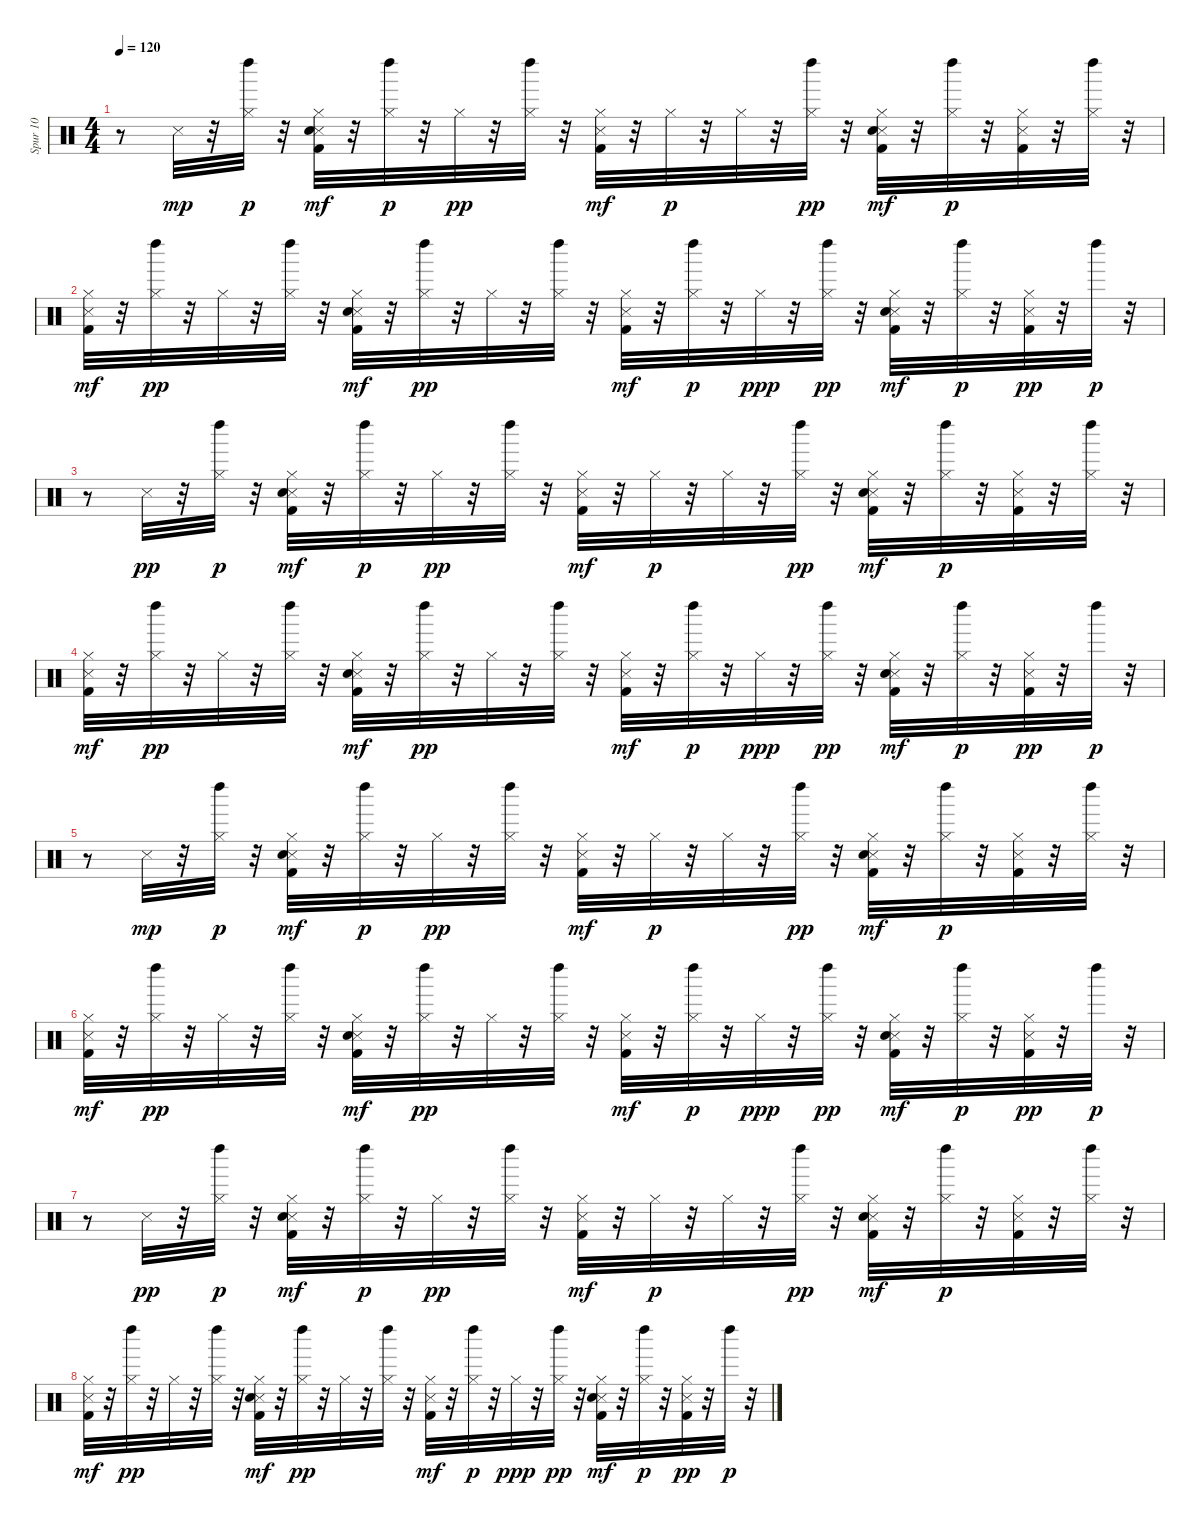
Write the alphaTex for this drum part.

\track ("Spur 10" "Spur 10") {instrument percussion}
\staff {score}
\articulation defaults
\ts (4 4)
\tempo 120
\clef neutral
\ks c
r.8{dy p} "Snare (side stick) 3".32{dy mp} r.32 ("Hi-Hat (closed)" "Left Maraca (hit)").32{dy p} r.32 ("Kick (hit) 2" "Snare (side stick) 3" "Hand Clap (hit)" "Hi-Hat (closed)").32{dy mf} r.32 ("Hi-Hat (closed)" "Left Maraca (hit)").32{dy p} r.32 "Hi-Hat (closed)".32{dy pp} r.32 ("Hi-Hat (closed)" "Left Maraca (hit)").32 r.32 ("Kick (hit) 2" "Snare (side stick) 3" "Hi-Hat (closed)").32{dy mf} r.32 "Hi-Hat (closed)".32{dy p} r.32 "Hi-Hat (closed)".32 r.32 ("Hi-Hat (closed)" "Left Maraca (hit)").32{dy pp} r.32 ("Kick (hit) 2" "Snare (side stick) 3" "Hand Clap (hit)" "Hi-Hat (closed)").32{dy mf} r.32 ("Hi-Hat (closed)" "Left Maraca (hit)").32{dy p} r.32 ("Kick (hit) 2" "Snare (side stick) 3" "Hi-Hat (closed)").32 r.32 ("Hi-Hat (closed)" "Left Maraca (hit)").32 r.32 |
("Kick (hit) 2" "Snare (side stick) 3" "Hi-Hat (closed)").32{dy mf} r.32 ("Hi-Hat (closed)" "Left Maraca (hit)").32{dy pp} r.32 "Hi-Hat (closed)".32 r.32 ("Hi-Hat (closed)" "Left Maraca (hit)").32 r.32 ("Kick (hit) 2" "Snare (side stick) 3" "Hand Clap (hit)" "Hi-Hat (closed)").32{dy mf} r.32 ("Hi-Hat (closed)" "Left Maraca (hit)").32{dy pp} r.32 "Hi-Hat (closed)".32 r.32 ("Hi-Hat (closed)" "Left Maraca (hit)").32 r.32 ("Kick (hit) 2" "Snare (side stick) 3" "Hi-Hat (closed)").32{dy mf} r.32 ("Hi-Hat (closed)" "Left Maraca (hit)").32{dy p} r.32 "Hi-Hat (closed)".32{dy ppp} r.32 ("Hi-Hat (closed)" "Left Maraca (hit)").32{dy pp} r.32 ("Kick (hit) 2" "Snare (side stick) 3" "Hand Clap (hit)" "Hi-Hat (closed)").32{dy mf} r.32 ("Hi-Hat (closed)" "Left Maraca (hit)").32{dy p} r.32 ("Kick (hit) 2" "Snare (side stick) 3" "Hi-Hat (closed)").32{dy pp} r.32 "Left Maraca (hit)".32{dy p} r.32 |
r.8 "Snare (side stick) 3".32{dy pp} r.32 ("Hi-Hat (closed)" "Left Maraca (hit)").32{dy p} r.32 ("Kick (hit) 2" "Snare (side stick) 3" "Hand Clap (hit)" "Hi-Hat (closed)").32{dy mf} r.32 ("Hi-Hat (closed)" "Left Maraca (hit)").32{dy p} r.32 "Hi-Hat (closed)".32{dy pp} r.32 ("Hi-Hat (closed)" "Left Maraca (hit)").32 r.32 ("Kick (hit) 2" "Snare (side stick) 3" "Hi-Hat (closed)").32{dy mf} r.32 "Hi-Hat (closed)".32{dy p} r.32 "Hi-Hat (closed)".32 r.32 ("Hi-Hat (closed)" "Left Maraca (hit)").32{dy pp} r.32 ("Kick (hit) 2" "Snare (side stick) 3" "Hand Clap (hit)" "Hi-Hat (closed)").32{dy mf} r.32 ("Hi-Hat (closed)" "Left Maraca (hit)").32{dy p} r.32 ("Kick (hit) 2" "Snare (side stick) 3" "Hi-Hat (closed)").32 r.32 ("Hi-Hat (closed)" "Left Maraca (hit)").32 r.32 |
("Kick (hit) 2" "Snare (side stick) 3" "Hi-Hat (closed)").32{dy mf} r.32 ("Hi-Hat (closed)" "Left Maraca (hit)").32{dy pp} r.32 "Hi-Hat (closed)".32 r.32 ("Hi-Hat (closed)" "Left Maraca (hit)").32 r.32 ("Kick (hit) 2" "Snare (side stick) 3" "Hand Clap (hit)" "Hi-Hat (closed)").32{dy mf} r.32 ("Hi-Hat (closed)" "Left Maraca (hit)").32{dy pp} r.32 "Hi-Hat (closed)".32 r.32 ("Hi-Hat (closed)" "Left Maraca (hit)").32 r.32 ("Kick (hit) 2" "Snare (side stick) 3" "Hi-Hat (closed)").32{dy mf} r.32 ("Hi-Hat (closed)" "Left Maraca (hit)").32{dy p} r.32 "Hi-Hat (closed)".32{dy ppp} r.32 ("Hi-Hat (closed)" "Left Maraca (hit)").32{dy pp} r.32 ("Kick (hit) 2" "Snare (side stick) 3" "Hand Clap (hit)" "Hi-Hat (closed)").32{dy mf} r.32 ("Hi-Hat (closed)" "Left Maraca (hit)").32{dy p} r.32 ("Kick (hit) 2" "Snare (side stick) 3" "Hi-Hat (closed)").32{dy pp} r.32 "Left Maraca (hit)".32{dy p} r.32 |
r.8 "Snare (side stick) 3".32{dy mp} r.32 ("Hi-Hat (closed)" "Left Maraca (hit)").32{dy p} r.32 ("Kick (hit) 2" "Snare (side stick) 3" "Hand Clap (hit)" "Hi-Hat (closed)").32{dy mf} r.32 ("Hi-Hat (closed)" "Left Maraca (hit)").32{dy p} r.32 "Hi-Hat (closed)".32{dy pp} r.32 ("Hi-Hat (closed)" "Left Maraca (hit)").32 r.32 ("Kick (hit) 2" "Snare (side stick) 3" "Hi-Hat (closed)").32{dy mf} r.32 "Hi-Hat (closed)".32{dy p} r.32 "Hi-Hat (closed)".32 r.32 ("Hi-Hat (closed)" "Left Maraca (hit)").32{dy pp} r.32 ("Kick (hit) 2" "Snare (side stick) 3" "Hand Clap (hit)" "Hi-Hat (closed)").32{dy mf} r.32 ("Hi-Hat (closed)" "Left Maraca (hit)").32{dy p} r.32 ("Kick (hit) 2" "Snare (side stick) 3" "Hi-Hat (closed)").32 r.32 ("Hi-Hat (closed)" "Left Maraca (hit)").32 r.32 |
("Kick (hit) 2" "Snare (side stick) 3" "Hi-Hat (closed)").32{dy mf} r.32 ("Hi-Hat (closed)" "Left Maraca (hit)").32{dy pp} r.32 "Hi-Hat (closed)".32 r.32 ("Hi-Hat (closed)" "Left Maraca (hit)").32 r.32 ("Kick (hit) 2" "Snare (side stick) 3" "Hand Clap (hit)" "Hi-Hat (closed)").32{dy mf} r.32 ("Hi-Hat (closed)" "Left Maraca (hit)").32{dy pp} r.32 "Hi-Hat (closed)".32 r.32 ("Hi-Hat (closed)" "Left Maraca (hit)").32 r.32 ("Kick (hit) 2" "Snare (side stick) 3" "Hi-Hat (closed)").32{dy mf} r.32 ("Hi-Hat (closed)" "Left Maraca (hit)").32{dy p} r.32 "Hi-Hat (closed)".32{dy ppp} r.32 ("Hi-Hat (closed)" "Left Maraca (hit)").32{dy pp} r.32 ("Kick (hit) 2" "Snare (side stick) 3" "Hand Clap (hit)" "Hi-Hat (closed)").32{dy mf} r.32 ("Hi-Hat (closed)" "Left Maraca (hit)").32{dy p} r.32 ("Kick (hit) 2" "Snare (side stick) 3" "Hi-Hat (closed)").32{dy pp} r.32 "Left Maraca (hit)".32{dy p} r.32 |
r.8 "Snare (side stick) 3".32{dy pp} r.32 ("Hi-Hat (closed)" "Left Maraca (hit)").32{dy p} r.32 ("Kick (hit) 2" "Snare (side stick) 3" "Hand Clap (hit)" "Hi-Hat (closed)").32{dy mf} r.32 ("Hi-Hat (closed)" "Left Maraca (hit)").32{dy p} r.32 "Hi-Hat (closed)".32{dy pp} r.32 ("Hi-Hat (closed)" "Left Maraca (hit)").32 r.32 ("Kick (hit) 2" "Snare (side stick) 3" "Hi-Hat (closed)").32{dy mf} r.32 "Hi-Hat (closed)".32{dy p} r.32 "Hi-Hat (closed)".32 r.32 ("Hi-Hat (closed)" "Left Maraca (hit)").32{dy pp} r.32 ("Kick (hit) 2" "Snare (side stick) 3" "Hand Clap (hit)" "Hi-Hat (closed)").32{dy mf} r.32 ("Hi-Hat (closed)" "Left Maraca (hit)").32{dy p} r.32 ("Kick (hit) 2" "Snare (side stick) 3" "Hi-Hat (closed)").32 r.32 ("Hi-Hat (closed)" "Left Maraca (hit)").32 r.32 |
("Kick (hit) 2" "Snare (side stick) 3" "Hi-Hat (closed)").32{dy mf} r.32 ("Hi-Hat (closed)" "Left Maraca (hit)").32{dy pp} r.32 "Hi-Hat (closed)".32 r.32 ("Hi-Hat (closed)" "Left Maraca (hit)").32 r.32 ("Kick (hit) 2" "Snare (side stick) 3" "Hand Clap (hit)" "Hi-Hat (closed)").32{dy mf} r.32 ("Hi-Hat (closed)" "Left Maraca (hit)").32{dy pp} r.32 "Hi-Hat (closed)".32 r.32 ("Hi-Hat (closed)" "Left Maraca (hit)").32 r.32 ("Kick (hit) 2" "Snare (side stick) 3" "Hi-Hat (closed)").32{dy mf} r.32 ("Hi-Hat (closed)" "Left Maraca (hit)").32{dy p} r.32 "Hi-Hat (closed)".32{dy ppp} r.32 ("Hi-Hat (closed)" "Left Maraca (hit)").32{dy pp} r.32 ("Kick (hit) 2" "Snare (side stick) 3" "Hand Clap (hit)" "Hi-Hat (closed)").32{dy mf} r.32 ("Hi-Hat (closed)" "Left Maraca (hit)").32{dy p} r.32 ("Kick (hit) 2" "Snare (side stick) 3" "Hi-Hat (closed)").32{dy pp} r.32 "Left Maraca (hit)".32{dy p} r.32
